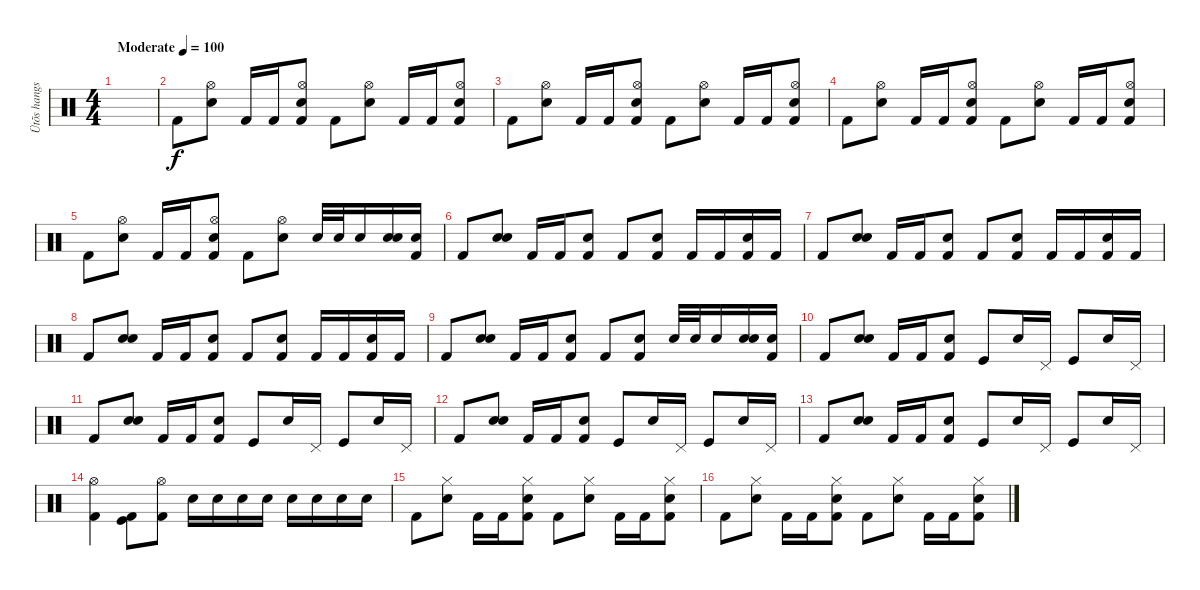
\track ("Ütõs hangszer" "Ütõs hangs") {instrument percussion}
\staff {score}
\articulation defaults
\ts (4 4)
\tempo (100 "Moderate")
\clef neutral
\ks c
|
"Kick (hit) 2".8 ("Hi-Hat (open)" "Snare (hit) 2").8 "Kick (hit) 2".16 "Kick (hit) 2".16 ("Hi-Hat (open)" "Kick (hit) 2" "Snare (hit) 2").8 "Kick (hit) 2".8 ("Hi-Hat (open)" "Snare (hit) 2").8 "Kick (hit) 2".16 "Kick (hit) 2".16 ("Hi-Hat (open)" "Kick (hit) 2" "Snare (hit) 2").8 |
"Kick (hit) 2".8 ("Hi-Hat (open)" "Snare (hit) 2").8 "Kick (hit) 2".16 "Kick (hit) 2".16 ("Hi-Hat (open)" "Kick (hit) 2" "Snare (hit) 2").8 "Kick (hit) 2".8 ("Hi-Hat (open)" "Snare (hit) 2").8 "Kick (hit) 2".16 "Kick (hit) 2".16 ("Hi-Hat (open)" "Kick (hit) 2" "Snare (hit) 2").8 |
"Kick (hit) 2".8 ("Hi-Hat (open)" "Snare (hit) 2").8 "Kick (hit) 2".16 "Kick (hit) 2".16 ("Hi-Hat (open)" "Kick (hit) 2" "Snare (hit) 2").8 "Kick (hit) 2".8 ("Hi-Hat (open)" "Snare (hit) 2").8 "Kick (hit) 2".16 "Kick (hit) 2".16 ("Hi-Hat (open)" "Kick (hit) 2" "Snare (hit) 2").8 |
"Kick (hit) 2".8 ("Hi-Hat (open)" "Snare (hit) 2").8 "Kick (hit) 2".16 "Kick (hit) 2".16 ("Hi-Hat (open)" "Kick (hit) 2" "Snare (hit) 2").8 "Kick (hit) 2".8 ("Hi-Hat (open)" "Snare (hit) 2").8 "Snare (hit) 2".32 "Snare (hit) 2".32 "Snare (hit) 2".16 ("Snare (hit) 2" "Snare (hit) 2").16 ("Kick (hit) 2" "Snare (hit) 2").16 |
"Kick (hit) 2".8 ("Snare (hit) 2" "Snare (hit) 2").8 "Kick (hit) 2".16 "Kick (hit) 2".16 ("Kick (hit) 2" "Snare (hit) 2").8 "Kick (hit) 2".8 ("Kick (hit) 2" "Snare (hit) 2").8 "Kick (hit) 2".16 "Kick (hit) 2".16 ("Kick (hit) 2" "Snare (hit) 2").16 "Kick (hit) 2".16 |
"Kick (hit) 2".8 ("Snare (hit) 2" "Snare (hit) 2").8 "Kick (hit) 2".16 "Kick (hit) 2".16 ("Kick (hit) 2" "Snare (hit) 2").8 "Kick (hit) 2".8 ("Kick (hit) 2" "Snare (hit) 2").8 "Kick (hit) 2".16 "Kick (hit) 2".16 ("Kick (hit) 2" "Snare (hit) 2").16 "Kick (hit) 2".16 |
"Kick (hit) 2".8 ("Snare (hit) 2" "Snare (hit) 2").8 "Kick (hit) 2".16 "Kick (hit) 2".16 ("Kick (hit) 2" "Snare (hit) 2").8 "Kick (hit) 2".8 ("Kick (hit) 2" "Snare (hit) 2").8 "Kick (hit) 2".16 "Kick (hit) 2".16 ("Kick (hit) 2" "Snare (hit) 2").16 "Kick (hit) 2".16 |
"Kick (hit) 2".8 ("Snare (hit) 2" "Snare (hit) 2").8 "Kick (hit) 2".16 "Kick (hit) 2".16 ("Kick (hit) 2" "Snare (hit) 2").8 "Kick (hit) 2".8 ("Kick (hit) 2" "Snare (hit) 2").8 "Snare (hit) 2".32 "Snare (hit) 2".32 "Snare (hit) 2".16 ("Snare (hit) 2" "Snare (hit) 2").16 ("Kick (hit) 2" "Snare (hit) 2").16 |
"Kick (hit) 2".8 ("Snare (hit) 2" "Snare (hit) 2").8 "Kick (hit) 2".16 "Kick (hit) 2".16 ("Kick (hit) 2" "Snare (hit) 2").8 "Kick (hit)".8 "Snare (hit) 2".16 "Pedal Hi-Hat (hit)".16 "Kick (hit)".8 "Snare (hit) 2".16 "Pedal Hi-Hat (hit)".16 |
"Kick (hit) 2".8 ("Snare (hit) 2" "Snare (hit) 2").8 "Kick (hit) 2".16 "Kick (hit) 2".16 ("Kick (hit) 2" "Snare (hit) 2").8 "Kick (hit)".8 "Snare (hit) 2".16 "Pedal Hi-Hat (hit)".16 "Kick (hit)".8 "Snare (hit) 2".16 "Pedal Hi-Hat (hit)".16 |
"Kick (hit) 2".8 ("Snare (hit) 2" "Snare (hit) 2").8 "Kick (hit) 2".16 "Kick (hit) 2".16 ("Kick (hit) 2" "Snare (hit) 2").8 "Kick (hit)".8 "Snare (hit) 2".16 "Pedal Hi-Hat (hit)".16 "Kick (hit)".8 "Snare (hit) 2".16 "Pedal Hi-Hat (hit)".16 |
"Kick (hit) 2".8 ("Snare (hit) 2" "Snare (hit) 2").8 "Kick (hit) 2".16 "Kick (hit) 2".16 ("Kick (hit) 2" "Snare (hit) 2").8 "Kick (hit)".8 "Snare (hit) 2".16 "Pedal Hi-Hat (hit)".16 "Kick (hit)".8 "Snare (hit) 2".16 "Pedal Hi-Hat (hit)".16 |
("Kick (hit) 2" "Hi-Hat (open)").4 ("Kick (hit) 2" "Kick (hit)").8 ("Kick (hit) 2" "Hi-Hat (open)").8 "Snare (hit) 2".16 "Snare (hit) 2".16 "Snare (hit) 2".16 "Snare (hit) 2".16 "Snare (hit) 2".16 "Snare (hit) 2".16 "Snare (hit) 2".16 "Snare (hit) 2".16 |
"Kick (hit) 2".8 ("Hi-Hat (closed)" "Snare (hit) 2").8 "Kick (hit) 2".16 "Kick (hit) 2".16 ("Hi-Hat (closed)" "Kick (hit) 2" "Snare (hit) 2").8 "Kick (hit) 2".8 ("Hi-Hat (closed)" "Snare (hit) 2").8 "Kick (hit) 2".16 "Kick (hit) 2".16 ("Hi-Hat (closed)" "Kick (hit) 2" "Snare (hit) 2").8 |
"Kick (hit) 2".8 ("Hi-Hat (closed)" "Snare (hit) 2").8 "Kick (hit) 2".16 "Kick (hit) 2".16 ("Hi-Hat (closed)" "Kick (hit) 2" "Snare (hit) 2").8 "Kick (hit) 2".8 ("Hi-Hat (closed)" "Snare (hit) 2").8 "Kick (hit) 2".16 "Kick (hit) 2".16 ("Hi-Hat (closed)" "Kick (hit) 2" "Snare (hit) 2").8
